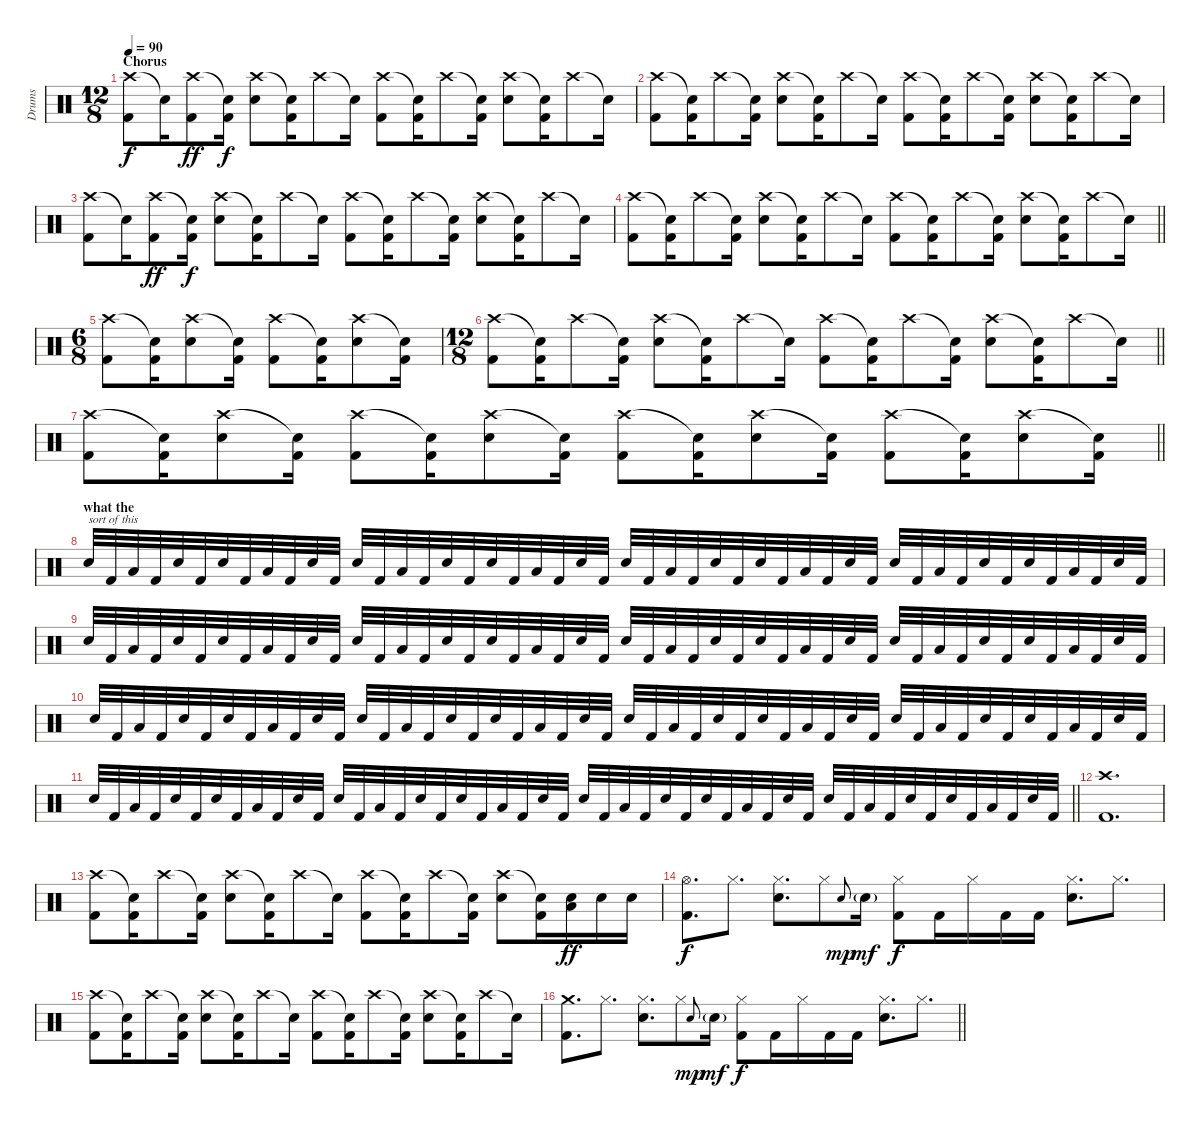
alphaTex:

\track ("Drums" "Drums") {instrument percussion}
\staff {score}
\articulation defaults
\ts (12 8)
\section ("" "Chorus")
\tempo 90
\clef neutral
\ks c
("Crash high (hit)" "Kick (hit) 2").8{dy f} "Snare (hit)"{t}.16 ("Crash high (hit)" "Kick (hit) 2").8{dy ff} ("Snare (hit)"{t} "Kick (hit) 2").16{dy f} ("Crash high (hit)" "Electric Snare (hit)").8 ("Snare (hit)"{t} "Kick (hit) 2").16 "Crash high (hit)".8 "Snare (hit)"{t}.16 ("Crash high (hit)" "Kick (hit) 2").8 ("Snare (hit)"{t} "Kick (hit) 2").16 "Crash high (hit)".8 ("Snare (hit)"{t} "Kick (hit) 2").16 ("Crash high (hit)" "Electric Snare (hit)").8 ("Snare (hit)"{t} "Kick (hit) 2").16 "Crash high (hit)".8 "Snare (hit)"{t}.16 |
("Crash high (hit)" "Kick (hit) 2").8 ("Snare (hit)"{t} "Kick (hit) 2").16 "Crash high (hit)".8 ("Snare (hit)"{t} "Kick (hit) 2").16 ("Crash high (hit)" "Electric Snare (hit)").8 ("Snare (hit)"{t} "Kick (hit) 2").16 "Crash high (hit)".8 "Snare (hit)"{t}.16 ("Crash high (hit)" "Kick (hit) 2").8 ("Snare (hit)"{t} "Kick (hit) 2").16 "Crash high (hit)".8 ("Snare (hit)"{t} "Kick (hit) 2").16 ("Crash high (hit)" "Electric Snare (hit)").8 ("Snare (hit)"{t} "Kick (hit) 2").16 "Crash high (hit)".8 "Snare (hit)"{t}.16 |
("Crash high (hit)" "Kick (hit) 2").8 "Snare (hit)"{t}.16 ("Crash high (hit)" "Kick (hit) 2").8{dy ff} ("Snare (hit)"{t} "Kick (hit) 2").16{dy f} ("Crash high (hit)" "Electric Snare (hit)").8 ("Snare (hit)"{t} "Kick (hit) 2").16 "Crash high (hit)".8 "Snare (hit)"{t}.16 ("Crash high (hit)" "Kick (hit) 2").8 ("Snare (hit)"{t} "Kick (hit) 2").16 "Crash high (hit)".8 ("Snare (hit)"{t} "Kick (hit) 2").16 ("Crash high (hit)" "Electric Snare (hit)").8 ("Snare (hit)"{t} "Kick (hit) 2").16 "Crash high (hit)".8 "Snare (hit)"{t}.16 |
\barLineRight lightlight
("Crash high (hit)" "Kick (hit) 2").8 ("Snare (hit)"{t} "Kick (hit) 2").16 "Crash high (hit)".8 ("Snare (hit)"{t} "Kick (hit) 2").16 ("Crash high (hit)" "Electric Snare (hit)").8 ("Snare (hit)"{t} "Kick (hit) 2").16 "Crash high (hit)".8 "Snare (hit)"{t}.16 ("Crash high (hit)" "Kick (hit) 2").8 ("Snare (hit)"{t} "Kick (hit) 2").16 "Crash high (hit)".8 ("Snare (hit)"{t} "Kick (hit) 2").16 ("Crash high (hit)" "Electric Snare (hit)").8 ("Snare (hit)"{t} "Kick (hit) 2").16 "Crash high (hit)".8 "Snare (hit)"{t}.16 |
\ts (6 8)
\section ("" "")
("Crash high (hit)" "Kick (hit) 2").8 ("Snare (hit)"{t} "Kick (hit) 2").16 ("Crash high (hit)" "Electric Snare (hit)").8 ("Snare (hit)"{t} "Kick (hit) 2").16 ("Crash high (hit)" "Kick (hit) 2").8 ("Snare (hit)"{t} "Kick (hit) 2").16 ("Crash high (hit)" "Electric Snare (hit)").8 ("Snare (hit)"{t} "Kick (hit) 2").16 |
\ts (12 8)
\barLineRight lightlight
("Crash high (hit)" "Kick (hit) 2").8 ("Snare (hit)"{t} "Kick (hit) 2").16 "Crash high (hit)".8 ("Snare (hit)"{t} "Kick (hit) 2").16 ("Crash high (hit)" "Electric Snare (hit)").8 ("Snare (hit)"{t} "Kick (hit) 2").16 "Crash high (hit)".8 "Snare (hit)"{t}.16 ("Crash high (hit)" "Kick (hit) 2").8 ("Snare (hit)"{t} "Kick (hit) 2").16 "Crash high (hit)".8 ("Snare (hit)"{t} "Kick (hit) 2").16 ("Crash high (hit)" "Electric Snare (hit)").8 ("Snare (hit)"{t} "Kick (hit) 2").16 "Crash high (hit)".8 "Snare (hit)"{t}.16 |
\barLineRight lightlight
("Crash high (hit)" "Kick (hit) 2").8 ("Snare (hit)"{t} "Kick (hit) 2").16 ("Crash high (hit)" "Electric Snare (hit)").8 ("Snare (hit)"{t} "Kick (hit) 2").16 ("Crash high (hit)" "Kick (hit) 2").8 ("Snare (hit)"{t} "Kick (hit) 2").16 ("Crash high (hit)" "Electric Snare (hit)").8 ("Snare (hit)"{t} "Kick (hit) 2").16 ("Crash high (hit)" "Kick (hit) 2").8 ("Snare (hit)"{t} "Kick (hit) 2").16 ("Crash high (hit)" "Electric Snare (hit)").8 ("Snare (hit)"{t} "Kick (hit) 2").16 ("Crash high (hit)" "Kick (hit) 2").8 ("Snare (hit)"{t} "Kick (hit) 2").16 ("Crash high (hit)" "Electric Snare (hit)").8 ("Snare (hit)"{t} "Kick (hit) 2").16 |
\section ("" "what the")
"Electric Snare (hit)".32{txt "sort of this"} "Kick (hit) 2".32 "Low Floor Tom (hit)".32 "Kick (hit) 2".32 "Electric Snare (hit)".32 "Kick (hit) 2".32 "Electric Snare (hit)".32 "Kick (hit) 2".32 "Low Floor Tom (hit)".32 "Kick (hit) 2".32 "Electric Snare (hit)".32 "Kick (hit) 2".32 "Electric Snare (hit)".32 "Kick (hit) 2".32 "Low Floor Tom (hit)".32 "Kick (hit) 2".32 "Electric Snare (hit)".32 "Kick (hit) 2".32 "Electric Snare (hit)".32 "Kick (hit) 2".32 "Low Floor Tom (hit)".32 "Kick (hit) 2".32 "Electric Snare (hit)".32 "Kick (hit) 2".32 "Electric Snare (hit)".32 "Kick (hit) 2".32 "Low Floor Tom (hit)".32 "Kick (hit) 2".32 "Electric Snare (hit)".32 "Kick (hit) 2".32 "Electric Snare (hit)".32 "Kick (hit) 2".32 "Low Floor Tom (hit)".32 "Kick (hit) 2".32 "Electric Snare (hit)".32 "Kick (hit) 2".32 "Electric Snare (hit)".32 "Kick (hit) 2".32 "Low Floor Tom (hit)".32 "Kick (hit) 2".32 "Electric Snare (hit)".32 "Kick (hit) 2".32 "Electric Snare (hit)".32 "Kick (hit) 2".32 "Low Floor Tom (hit)".32 "Kick (hit) 2".32 "Electric Snare (hit)".32 "Kick (hit) 2".32 |
"Electric Snare (hit)".32 "Kick (hit) 2".32 "Low Floor Tom (hit)".32 "Kick (hit) 2".32 "Electric Snare (hit)".32 "Kick (hit) 2".32 "Electric Snare (hit)".32 "Kick (hit) 2".32 "Low Floor Tom (hit)".32 "Kick (hit) 2".32 "Electric Snare (hit)".32 "Kick (hit) 2".32 "Electric Snare (hit)".32 "Kick (hit) 2".32 "Low Floor Tom (hit)".32 "Kick (hit) 2".32 "Electric Snare (hit)".32 "Kick (hit) 2".32 "Electric Snare (hit)".32 "Kick (hit) 2".32 "Low Floor Tom (hit)".32 "Kick (hit) 2".32 "Electric Snare (hit)".32 "Kick (hit) 2".32 "Electric Snare (hit)".32 "Kick (hit) 2".32 "Low Floor Tom (hit)".32 "Kick (hit) 2".32 "Electric Snare (hit)".32 "Kick (hit) 2".32 "Electric Snare (hit)".32 "Kick (hit) 2".32 "Low Floor Tom (hit)".32 "Kick (hit) 2".32 "Electric Snare (hit)".32 "Kick (hit) 2".32 "Electric Snare (hit)".32 "Kick (hit) 2".32 "Low Floor Tom (hit)".32 "Kick (hit) 2".32 "Electric Snare (hit)".32 "Kick (hit) 2".32 "Electric Snare (hit)".32 "Kick (hit) 2".32 "Low Floor Tom (hit)".32 "Kick (hit) 2".32 "Electric Snare (hit)".32 "Kick (hit) 2".32 |
"Electric Snare (hit)".32 "Kick (hit) 2".32 "Low Floor Tom (hit)".32 "Kick (hit) 2".32 "Electric Snare (hit)".32 "Kick (hit) 2".32 "Electric Snare (hit)".32 "Kick (hit) 2".32 "Low Floor Tom (hit)".32 "Kick (hit) 2".32 "Electric Snare (hit)".32 "Kick (hit) 2".32 "Electric Snare (hit)".32 "Kick (hit) 2".32 "Low Floor Tom (hit)".32 "Kick (hit) 2".32 "Electric Snare (hit)".32 "Kick (hit) 2".32 "Electric Snare (hit)".32 "Kick (hit) 2".32 "Low Floor Tom (hit)".32 "Kick (hit) 2".32 "Electric Snare (hit)".32 "Kick (hit) 2".32 "Electric Snare (hit)".32 "Kick (hit) 2".32 "Low Floor Tom (hit)".32 "Kick (hit) 2".32 "Electric Snare (hit)".32 "Kick (hit) 2".32 "Electric Snare (hit)".32 "Kick (hit) 2".32 "Low Floor Tom (hit)".32 "Kick (hit) 2".32 "Electric Snare (hit)".32 "Kick (hit) 2".32 "Electric Snare (hit)".32 "Kick (hit) 2".32 "Low Floor Tom (hit)".32 "Kick (hit) 2".32 "Electric Snare (hit)".32 "Kick (hit) 2".32 "Electric Snare (hit)".32 "Kick (hit) 2".32 "Low Floor Tom (hit)".32 "Kick (hit) 2".32 "Electric Snare (hit)".32 "Kick (hit) 2".32 |
\barLineRight lightlight "Electric Snare (hit)".32 "Kick (hit) 2".32 "Low Floor Tom (hit)".32 "Kick (hit) 2".32 "Electric Snare (hit)".32 "Kick (hit) 2".32 "Electric Snare (hit)".32 "Kick (hit) 2".32 "Low Floor Tom (hit)".32 "Kick (hit) 2".32 "Electric Snare (hit)".32 "Kick (hit) 2".32 "Electric Snare (hit)".32 "Kick (hit) 2".32 "Low Floor Tom (hit)".32 "Kick (hit) 2".32 "Electric Snare (hit)".32 "Kick (hit) 2".32 "Electric Snare (hit)".32 "Kick (hit) 2".32 "Low Floor Tom (hit)".32 "Kick (hit) 2".32 "Electric Snare (hit)".32 "Kick (hit) 2".32 "Electric Snare (hit)".32 "Kick (hit) 2".32 "Low Floor Tom (hit)".32 "Kick (hit) 2".32 "Electric Snare (hit)".32 "Kick (hit) 2".32 "Electric Snare (hit)".32 "Kick (hit) 2".32 "Low Floor Tom (hit)".32 "Kick (hit) 2".32 "Electric Snare (hit)".32 "Kick (hit) 2".32 "Electric Snare (hit)".32 "Kick (hit) 2".32 "Low Floor Tom (hit)".32 "Kick (hit) 2".32 "Electric Snare (hit)".32 "Kick (hit) 2".32 "Electric Snare (hit)".32 "Kick (hit) 2".32 "Low Floor Tom (hit)".32 "Kick (hit) 2".32 "Electric Snare (hit)".32 "Kick (hit) 2".32
|
\section ("" "")
("Crash high (hit)" "Kick (hit) 2").1{d} |
("Crash high (hit)" "Kick (hit) 2").8 ("Snare (hit)"{t} "Kick (hit) 2").16 "Crash high (hit)".8 ("Snare (hit)"{t} "Kick (hit) 2").16 ("Crash high (hit)" "Electric Snare (hit)").8 ("Snare (hit)"{t} "Kick (hit) 2").16 "Crash high (hit)".8 "Snare (hit)"{t}.16 ("Crash high (hit)" "Kick (hit) 2").8 ("Snare (hit)"{t} "Kick (hit) 2").16 "Crash high (hit)".8 ("Snare (hit)"{t} "Kick (hit) 2").16 ("Crash high (hit)" "Electric Snare (hit)").8 ("Snare (hit)"{t} "Kick (hit) 2").16 ("Electric Snare (hit)" "Low Floor Tom (hit)").16{dy ff} "Electric Snare (hit)".16 "Electric Snare (hit)".16 |
("Hi-Hat (open)" "Kick (hit) 2").8{d dy f} "Hi-Hat (closed)".8{d} ("Hi-Hat (closed)" "Electric Snare (hit)").8{d} "Hi-Hat (closed)".8 "Electric Snare (hit)".8{gr onbeat dy mp} "Electric Snare (hit)"{g}.16{dy mf} ("Hi-Hat (closed)" "Kick (hit) 2").8{dy f} "Kick (hit) 2".16 "Hi-Hat (closed)".16 "Kick (hit) 2".16 "Kick (hit) 2".16 ("Hi-Hat (closed)" "Electric Snare (hit)").8{d} "Hi-Hat (closed)".8{d} |
("Crash high (hit)" "Kick (hit) 2").8 ("Snare (hit)"{t} "Kick (hit) 2").16 "Crash high (hit)".8 ("Snare (hit)"{t} "Kick (hit) 2").16 ("Crash high (hit)" "Electric Snare (hit)").8 ("Snare (hit)"{t} "Kick (hit) 2").16 "Crash high (hit)".8 "Snare (hit)"{t}.16 ("Crash high (hit)" "Kick (hit) 2").8 ("Snare (hit)"{t} "Kick (hit) 2").16 "Crash high (hit)".8 ("Snare (hit)"{t} "Kick (hit) 2").16 ("Crash high (hit)" "Electric Snare (hit)").8 ("Snare (hit)"{t} "Kick (hit) 2").16 "Crash high (hit)".8 "Snare (hit)"{t}.16 |
\barLineRight lightlight
("Crash medium (hit)" "Kick (hit) 2").8{d} "Hi-Hat (closed)".8{d} ("Hi-Hat (closed)" "Electric Snare (hit)").8{d} "Hi-Hat (closed)".8 "Electric Snare (hit)".8{gr onbeat dy mp} "Electric Snare (hit)"{g}.16{dy mf} ("Hi-Hat (closed)" "Kick (hit) 2").8{dy f} "Kick (hit) 2".16 "Hi-Hat (closed)".16 "Kick (hit) 2".16 "Kick (hit) 2".16 ("Hi-Hat (closed)" "Electric Snare (hit)").8{d} "Hi-Hat (closed)".8{d}
